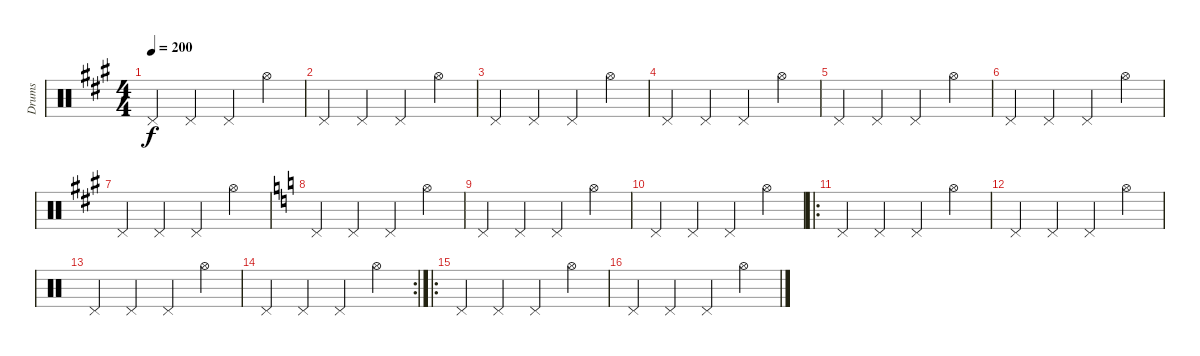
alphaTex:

\track ("Drums" "Drums") {instrument percussion}
\staff {score}
\articulation defaults
\ts (4 4)
\tempo 200
\clef neutral
\ks a "Pedal Hi-Hat (hit)".4{dy f} "Pedal Hi-Hat (hit)".4 "Pedal Hi-Hat (hit)".4 "Hi-Hat (open)".4
|
"Pedal Hi-Hat (hit)".4 "Pedal Hi-Hat (hit)".4 "Pedal Hi-Hat (hit)".4 "Hi-Hat (open)".4 |
"Pedal Hi-Hat (hit)".4 "Pedal Hi-Hat (hit)".4 "Pedal Hi-Hat (hit)".4 "Hi-Hat (open)".4 |
"Pedal Hi-Hat (hit)".4 "Pedal Hi-Hat (hit)".4 "Pedal Hi-Hat (hit)".4 "Hi-Hat (open)".4 |
"Pedal Hi-Hat (hit)".4 "Pedal Hi-Hat (hit)".4 "Pedal Hi-Hat (hit)".4 "Hi-Hat (open)".4 |
"Pedal Hi-Hat (hit)".4 "Pedal Hi-Hat (hit)".4 "Pedal Hi-Hat (hit)".4 "Hi-Hat (open)".4 |
"Pedal Hi-Hat (hit)".4 "Pedal Hi-Hat (hit)".4 "Pedal Hi-Hat (hit)".4 "Hi-Hat (open)".4 |
\ks c "Pedal Hi-Hat (hit)".4 "Pedal Hi-Hat (hit)".4 "Pedal Hi-Hat (hit)".4 "Hi-Hat (open)".4
|
"Pedal Hi-Hat (hit)".4 "Pedal Hi-Hat (hit)".4 "Pedal Hi-Hat (hit)".4 "Hi-Hat (open)".4 |
"Pedal Hi-Hat (hit)".4 "Pedal Hi-Hat (hit)".4 "Pedal Hi-Hat (hit)".4 "Hi-Hat (open)".4 |
\ro "Pedal Hi-Hat (hit)".4 "Pedal Hi-Hat (hit)".4 "Pedal Hi-Hat (hit)".4 "Hi-Hat (open)".4
|
"Pedal Hi-Hat (hit)".4 "Pedal Hi-Hat (hit)".4 "Pedal Hi-Hat (hit)".4 "Hi-Hat (open)".4 |
"Pedal Hi-Hat (hit)".4 "Pedal Hi-Hat (hit)".4 "Pedal Hi-Hat (hit)".4 "Hi-Hat (open)".4 |
\rc 2 "Pedal Hi-Hat (hit)".4 "Pedal Hi-Hat (hit)".4 "Pedal Hi-Hat (hit)".4 "Hi-Hat (open)".4
|
\ro "Pedal Hi-Hat (hit)".4 "Pedal Hi-Hat (hit)".4 "Pedal Hi-Hat (hit)".4 "Hi-Hat (open)".4
|
"Pedal Hi-Hat (hit)".4 "Pedal Hi-Hat (hit)".4 "Pedal Hi-Hat (hit)".4 "Hi-Hat (open)".4
